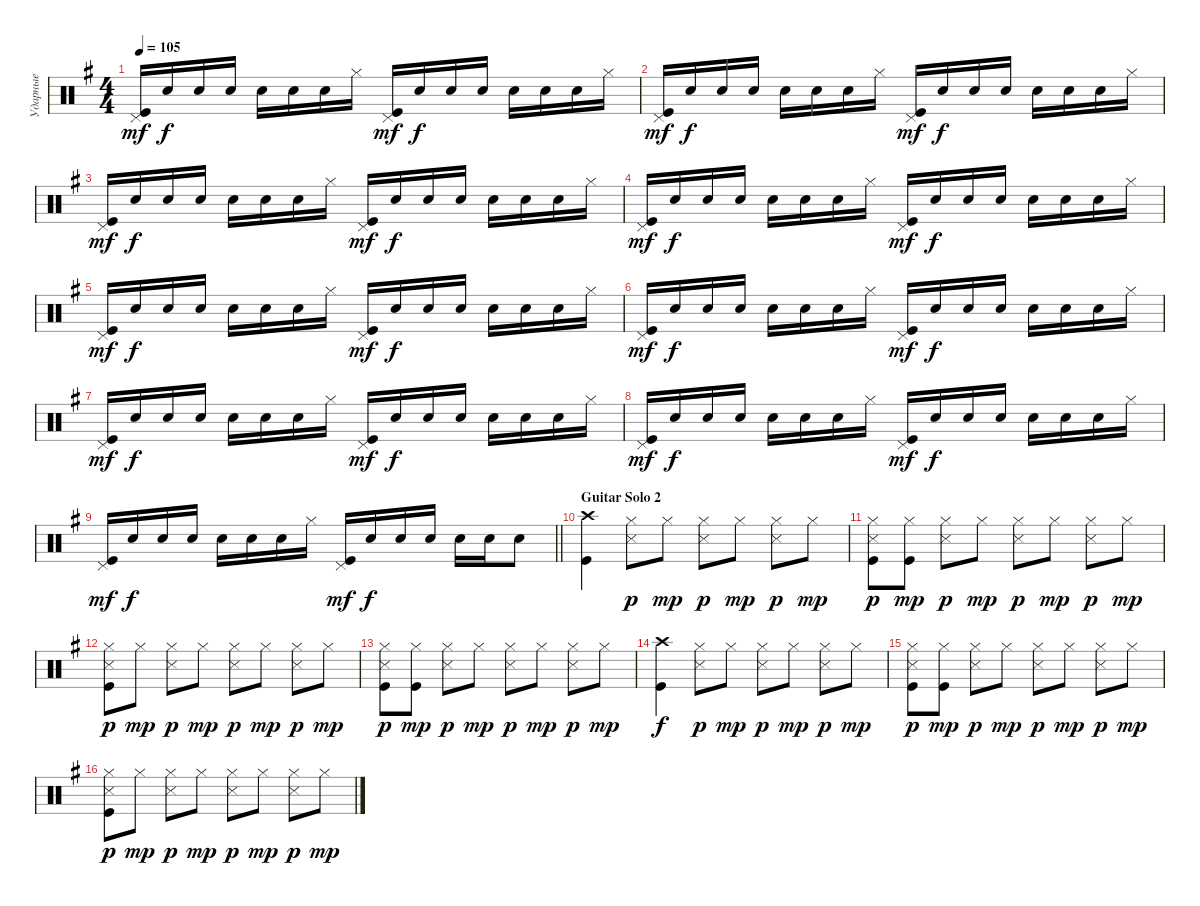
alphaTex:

\track ("Ударные" "Ударные") {instrument percussion}
\staff {score}
\articulation defaults
\ts (4 4)
\tempo 105
\clef neutral
\ks eminor
("Pedal Hi-Hat (hit)" "Kick (hit)").16{dy mf} "Snare (hit) 2".16{dy f} "Snare (hit) 2".16 "Snare (hit) 2".16 "Snare (hit) 2".16 "Snare (hit) 2".16 "Snare (hit) 2".16 "Hi-Hat (closed)".16 ("Pedal Hi-Hat (hit)" "Kick (hit)").16{dy mf} "Snare (hit) 2".16{dy f} "Snare (hit) 2".16 "Snare (hit) 2".16 "Snare (hit) 2".16 "Snare (hit) 2".16 "Snare (hit) 2".16 "Hi-Hat (closed)".16 |
("Kick (hit)" "Pedal Hi-Hat (hit)").16{dy mf} "Snare (hit) 2".16{dy f} "Snare (hit) 2".16 "Snare (hit) 2".16 "Snare (hit) 2".16 "Snare (hit) 2".16 "Snare (hit) 2".16 "Hi-Hat (closed)".16 ("Pedal Hi-Hat (hit)" "Kick (hit)").16{dy mf} "Snare (hit) 2".16{dy f} "Snare (hit) 2".16 "Snare (hit) 2".16 "Snare (hit) 2".16 "Snare (hit) 2".16 "Snare (hit) 2".16 "Hi-Hat (closed)".16 |
("Pedal Hi-Hat (hit)" "Kick (hit)").16{dy mf} "Snare (hit) 2".16{dy f} "Snare (hit) 2".16 "Snare (hit) 2".16 "Snare (hit) 2".16 "Snare (hit) 2".16 "Snare (hit) 2".16 "Hi-Hat (closed)".16 ("Pedal Hi-Hat (hit)" "Kick (hit)").16{dy mf} "Snare (hit) 2".16{dy f} "Snare (hit) 2".16 "Snare (hit) 2".16 "Snare (hit) 2".16 "Snare (hit) 2".16 "Snare (hit) 2".16 "Hi-Hat (closed)".16 |
("Kick (hit)" "Pedal Hi-Hat (hit)").16{dy mf} "Snare (hit) 2".16{dy f} "Snare (hit) 2".16 "Snare (hit) 2".16 "Snare (hit) 2".16 "Snare (hit) 2".16 "Snare (hit) 2".16 "Hi-Hat (closed)".16 ("Pedal Hi-Hat (hit)" "Kick (hit)").16{dy mf} "Snare (hit) 2".16{dy f} "Snare (hit) 2".16 "Snare (hit) 2".16 "Snare (hit) 2".16 "Snare (hit) 2".16 "Snare (hit) 2".16 "Hi-Hat (closed)".16 |
("Pedal Hi-Hat (hit)" "Kick (hit)").16{dy mf} "Snare (hit) 2".16{dy f} "Snare (hit) 2".16 "Snare (hit) 2".16 "Snare (hit) 2".16 "Snare (hit) 2".16 "Snare (hit) 2".16 "Hi-Hat (closed)".16 ("Pedal Hi-Hat (hit)" "Kick (hit)").16{dy mf} "Snare (hit) 2".16{dy f} "Snare (hit) 2".16 "Snare (hit) 2".16 "Snare (hit) 2".16 "Snare (hit) 2".16 "Snare (hit) 2".16 "Hi-Hat (closed)".16 |
("Kick (hit)" "Pedal Hi-Hat (hit)").16{dy mf} "Snare (hit) 2".16{dy f} "Snare (hit) 2".16 "Snare (hit) 2".16 "Snare (hit) 2".16 "Snare (hit) 2".16 "Snare (hit) 2".16 "Hi-Hat (closed)".16 ("Pedal Hi-Hat (hit)" "Kick (hit)").16{dy mf} "Snare (hit) 2".16{dy f} "Snare (hit) 2".16 "Snare (hit) 2".16 "Snare (hit) 2".16 "Snare (hit) 2".16 "Snare (hit) 2".16 "Hi-Hat (closed)".16 |
("Pedal Hi-Hat (hit)" "Kick (hit)").16{dy mf} "Snare (hit) 2".16{dy f} "Snare (hit) 2".16 "Snare (hit) 2".16 "Snare (hit) 2".16 "Snare (hit) 2".16 "Snare (hit) 2".16 "Hi-Hat (closed)".16 ("Pedal Hi-Hat (hit)" "Kick (hit)").16{dy mf} "Snare (hit) 2".16{dy f} "Snare (hit) 2".16 "Snare (hit) 2".16 "Snare (hit) 2".16 "Snare (hit) 2".16 "Snare (hit) 2".16 "Hi-Hat (closed)".16 |
("Kick (hit)" "Pedal Hi-Hat (hit)").16{dy mf} "Snare (hit) 2".16{dy f} "Snare (hit) 2".16 "Snare (hit) 2".16 "Snare (hit) 2".16 "Snare (hit) 2".16 "Snare (hit) 2".16 "Hi-Hat (closed)".16 ("Pedal Hi-Hat (hit)" "Kick (hit)").16{dy mf} "Snare (hit) 2".16{dy f} "Snare (hit) 2".16 "Snare (hit) 2".16 "Snare (hit) 2".16 "Snare (hit) 2".16 "Snare (hit) 2".16 "Hi-Hat (closed)".16 |
\barLineRight lightlight
("Pedal Hi-Hat (hit)" "Kick (hit)").16{dy mf} "Snare (hit) 2".16{dy f} "Snare (hit) 2".16 "Snare (hit) 2".16 "Snare (hit) 2".16 "Snare (hit) 2".16 "Snare (hit) 2".16 "Hi-Hat (closed)".16 ("Pedal Hi-Hat (hit)" "Kick (hit)").16{dy mf} "Snare (hit) 2".16{dy f} "Snare (hit) 2".16 "Snare (hit) 2".16 "Snare (hit) 2".16 "Snare (hit) 2".16 "Snare (hit) 2".8 |
\section ("" "Guitar Solo 2")
("Kick (hit)" "Crash high (hit)").4 ("Hi-Hat (closed)" "Snare (side stick) 3").8{dy p} "Hi-Hat (closed)".8{dy mp} ("Hi-Hat (closed)" "Snare (side stick) 3").8{dy p} "Hi-Hat (closed)".8{dy mp} ("Hi-Hat (closed)" "Snare (side stick) 3").8{dy p} "Hi-Hat (closed)".8{dy mp} |
("Hi-Hat (closed)" "Kick (hit)" "Snare (side stick) 3").8{dy p} ("Hi-Hat (closed)" "Kick (hit)").8{dy mp} ("Hi-Hat (closed)" "Snare (side stick) 3").8{dy p} "Hi-Hat (closed)".8{dy mp} ("Hi-Hat (closed)" "Snare (side stick) 3").8{dy p} "Hi-Hat (closed)".8{dy mp} ("Hi-Hat (closed)" "Snare (side stick) 3").8{dy p} "Hi-Hat (closed)".8{dy mp} |
("Hi-Hat (closed)" "Kick (hit)" "Snare (side stick) 3").8{dy p} "Hi-Hat (closed)".8{dy mp} ("Hi-Hat (closed)" "Snare (side stick) 3").8{dy p} "Hi-Hat (closed)".8{dy mp} ("Hi-Hat (closed)" "Snare (side stick) 3").8{dy p} "Hi-Hat (closed)".8{dy mp} ("Hi-Hat (closed)" "Snare (side stick) 3").8{dy p} "Hi-Hat (closed)".8{dy mp} |
("Hi-Hat (closed)" "Kick (hit)" "Snare (side stick) 3").8{dy p} ("Hi-Hat (closed)" "Kick (hit)").8{dy mp} ("Hi-Hat (closed)" "Snare (side stick) 3").8{dy p} "Hi-Hat (closed)".8{dy mp} ("Hi-Hat (closed)" "Snare (side stick) 3").8{dy p} "Hi-Hat (closed)".8{dy mp} ("Hi-Hat (closed)" "Snare (side stick) 3").8{dy p} "Hi-Hat (closed)".8{dy mp} |
("Kick (hit)" "Crash high (hit)").4{dy f} ("Hi-Hat (closed)" "Snare (side stick) 3").8{dy p} "Hi-Hat (closed)".8{dy mp} ("Hi-Hat (closed)" "Snare (side stick) 3").8{dy p} "Hi-Hat (closed)".8{dy mp} ("Hi-Hat (closed)" "Snare (side stick) 3").8{dy p} "Hi-Hat (closed)".8{dy mp} |
("Hi-Hat (closed)" "Kick (hit)" "Snare (side stick) 3").8{dy p} ("Hi-Hat (closed)" "Kick (hit)").8{dy mp} ("Hi-Hat (closed)" "Snare (side stick) 3").8{dy p} "Hi-Hat (closed)".8{dy mp} ("Hi-Hat (closed)" "Snare (side stick) 3").8{dy p} "Hi-Hat (closed)".8{dy mp} ("Hi-Hat (closed)" "Snare (side stick) 3").8{dy p} "Hi-Hat (closed)".8{dy mp} |
("Hi-Hat (closed)" "Kick (hit)" "Snare (side stick) 3").8{dy p} "Hi-Hat (closed)".8{dy mp} ("Hi-Hat (closed)" "Snare (side stick) 3").8{dy p} "Hi-Hat (closed)".8{dy mp} ("Hi-Hat (closed)" "Snare (side stick) 3").8{dy p} "Hi-Hat (closed)".8{dy mp} ("Hi-Hat (closed)" "Snare (side stick) 3").8{dy p} "Hi-Hat (closed)".8{dy mp}
